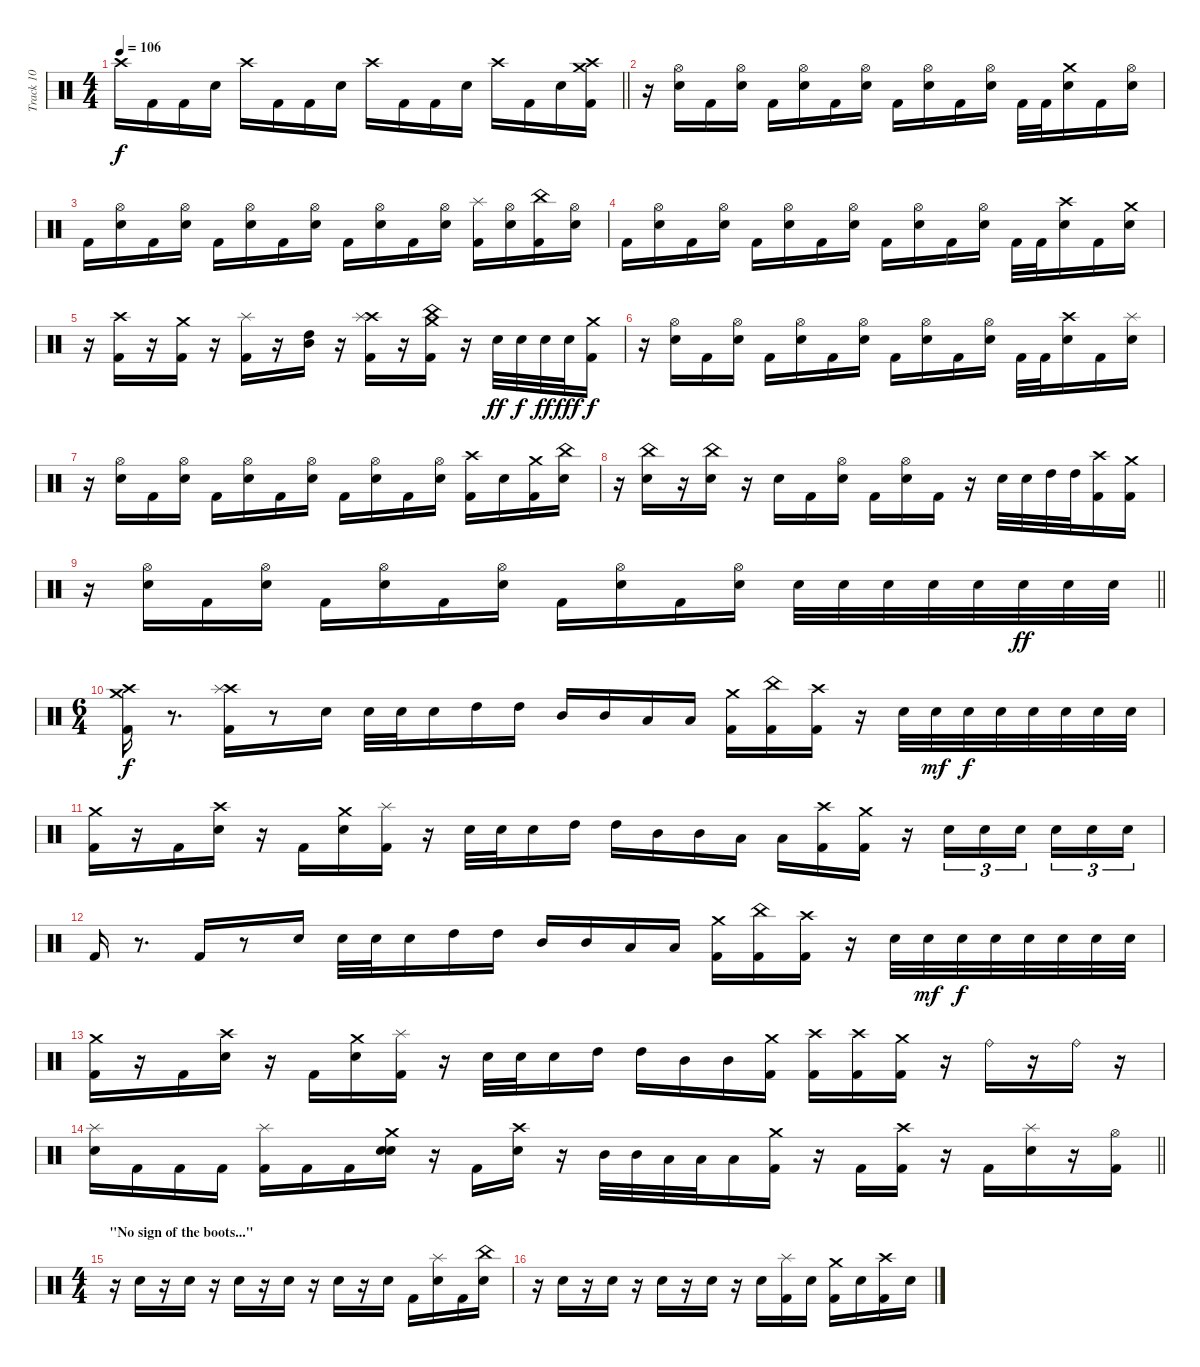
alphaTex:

\track ("Track 10" "Track 10") {instrument percussion}
\staff {score}
\articulation defaults
\ts (4 4)
\tempo 106
\clef neutral
\barLineRight lightlight
\ks c "Crash high (hit)".16{dy f} "Kick (hit) 2".16 "Kick (hit) 2".16 "Snare (hit) 2".16 "Crash high (hit)".16 "Kick (hit) 2".16 "Kick (hit) 2".16 "Snare (hit) 2".16 "Crash high (hit)".16 "Kick (hit) 2".16 "Kick (hit) 2".16 "Snare (hit) 2".16 "Crash high (hit)".16 "Kick (hit) 2".16 "Snare (hit) 2".16
("Kick (hit) 2" "Crash high (hit)" "Crash medium (hit)").16 |
r.16 ("Snare (hit) 2" "Hi-Hat (open)").16 "Kick (hit) 2".16 ("Snare (hit) 2" "Hi-Hat (open)").16 "Kick (hit) 2".16 ("Snare (hit) 2" "Hi-Hat (open)").16 "Kick (hit) 2".16 ("Snare (hit) 2" "Hi-Hat (open)").16 "Kick (hit) 2".16 ("Snare (hit) 2" "Hi-Hat (open)").16 "Kick (hit) 2".16 ("Snare (hit) 2" "Hi-Hat (open)").16 "Kick (hit) 2".32 "Kick (hit) 2".32 ("Snare (hit) 2" "Crash medium (hit)").16 "Kick (hit) 2".16 ("Snare (hit) 2" "Hi-Hat (open)").16 |
"Kick (hit) 2".16 ("Snare (hit) 2" "Hi-Hat (open)").16 "Kick (hit) 2".16 ("Snare (hit) 2" "Hi-Hat (open)").16 "Kick (hit) 2".16 ("Snare (hit) 2" "Hi-Hat (open)").16 "Kick (hit) 2".16 ("Snare (hit) 2" "Hi-Hat (open)").16 "Kick (hit) 2".16 ("Snare (hit) 2" "Hi-Hat (open)").16 "Kick (hit) 2".16 ("Snare (hit) 2" "Hi-Hat (open)").16 ("Kick (hit) 2" "Splash (hit)").16 ("Snare (hit) 2" "Hi-Hat (open)").16 ("Kick (hit) 2" "China (hit)").16 ("Snare (hit) 2" "Hi-Hat (open)").16 |
"Kick (hit) 2".16 ("Snare (hit) 2" "Hi-Hat (open)").16 "Kick (hit) 2".16 ("Snare (hit) 2" "Hi-Hat (open)").16 "Kick (hit) 2".16 ("Snare (hit) 2" "Hi-Hat (open)").16 "Kick (hit) 2".16 ("Snare (hit) 2" "Hi-Hat (open)").16 "Kick (hit) 2".16 ("Snare (hit) 2" "Hi-Hat (open)").16 "Kick (hit) 2".16 ("Snare (hit) 2" "Hi-Hat (open)").16 "Kick (hit) 2".32 "Kick (hit) 2".32 ("Snare (hit) 2" "Crash high (hit)").16 "Kick (hit) 2".16 ("Snare (hit) 2" "Crash medium (hit)").16 |
r.16 ("Kick (hit) 2" "Crash high (hit)").16 r.16 ("Kick (hit) 2" "Crash medium (hit)").16 r.16 ("Kick (hit) 2" "Splash (hit)").16 r.16 ("Mid Tom (hit)" "High Tom (hit)").16 r.16 ("Kick (hit) 2" "Crash high (hit)" "Splash (hit)").16 r.16 ("Kick (hit) 2" "China (hit)" "Crash medium (hit)").16 r.16 "Snare (hit) 2".32{dy ff} "Snare (hit) 2".32{dy f} "Snare (hit) 2".32{dy ff} "Snare (hit) 2".32{dy fff} ("Kick (hit) 2" "Crash medium (hit)").16{dy f} |
r.16 ("Snare (hit) 2" "Hi-Hat (open)").16 "Kick (hit) 2".16 ("Snare (hit) 2" "Hi-Hat (open)").16 "Kick (hit) 2".16 ("Snare (hit) 2" "Hi-Hat (open)").16 "Kick (hit) 2".16 ("Snare (hit) 2" "Hi-Hat (open)").16 "Kick (hit) 2".16 ("Snare (hit) 2" "Hi-Hat (open)").16 "Kick (hit) 2".16 ("Snare (hit) 2" "Hi-Hat (open)").16 "Kick (hit) 2".32 "Kick (hit) 2".32 ("Snare (hit) 2" "Crash high (hit)").16 "Kick (hit) 2".16 ("Snare (hit) 2" "Splash (hit)").16 |
r.16 ("Snare (hit) 2" "Hi-Hat (open)").16 "Kick (hit) 2".16 ("Snare (hit) 2" "Hi-Hat (open)").16 "Kick (hit) 2".16 ("Snare (hit) 2" "Hi-Hat (open)").16 "Kick (hit) 2".16 ("Snare (hit) 2" "Hi-Hat (open)").16 "Kick (hit) 2".16 ("Snare (hit) 2" "Hi-Hat (open)").16 "Kick (hit) 2".16 ("Snare (hit) 2" "Hi-Hat (open)").16 ("Kick (hit) 2" "Crash high (hit)").16 "Snare (hit) 2".16 ("Kick (hit) 2" "Crash medium (hit)").16 ("Snare (hit) 2" "China (hit)").16 |
r.16 ("Snare (hit) 2" "China (hit)").16 r.16 ("Snare (hit) 2" "China (hit)").16 r.16 "Snare (hit) 2".16 "Kick (hit) 2".16 ("Snare (hit) 2" "Hi-Hat (open)").16 "Kick (hit) 2".16 ("Snare (hit) 2" "Hi-Hat (open)").16 "Kick (hit) 2".16 r.16 "Snare (hit) 2".32 "Snare (hit) 2".32 "High Tom (hit)".32 "High Tom (hit)".32 ("Kick (hit) 2" "Crash high (hit)").16 ("Kick (hit) 2" "Crash medium (hit)").16 |
\barLineRight lightlight
r.16 ("Snare (hit) 2" "Hi-Hat (open)").16 "Kick (hit) 2".16 ("Snare (hit) 2" "Hi-Hat (open)").16 "Kick (hit) 2".16 ("Snare (hit) 2" "Hi-Hat (open)").16 "Kick (hit) 2".16 ("Snare (hit) 2" "Hi-Hat (open)").16 "Kick (hit) 2".16 ("Snare (hit) 2" "Hi-Hat (open)").16 "Kick (hit) 2".16 ("Snare (hit) 2" "Hi-Hat (open)").16 "Snare (hit) 2".32 "Snare (hit) 2".32 "Snare (hit) 2".32 "Snare (hit) 2".32 "Snare (hit) 2".32 "Snare (hit) 2".32{dy ff} "Snare (hit) 2".32 "Snare (hit) 2".32 |
\ts (6 4)
("Kick (hit) 2" "Crash high (hit)" "Crash medium (hit)").16{dy f} r.8{d} ("Kick (hit) 2" "Crash high (hit)" "Splash (hit)").16 r.8 "Snare (hit) 2".16 "Snare (hit) 2".32 "Snare (hit) 2".32 "Snare (hit) 2".16 "High Tom (hit)".16 "High Tom (hit)".16 "Mid Tom (hit)".16 "Mid Tom (hit)".16 "Low Floor Tom (hit)".16 "Low Floor Tom (hit)".16 ("Kick (hit) 2" "Crash medium (hit)").16 ("Kick (hit) 2" "China (hit)").16 ("Kick (hit) 2" "Crash high (hit)").16 r.16 "Snare (hit) 2".32 "Snare (hit) 2".32{dy mf} "Snare (hit) 2".32{dy f} "Snare (hit) 2".32 "Snare (hit) 2".32 "Snare (hit) 2".32 "Snare (hit) 2".32 "Snare (hit) 2".32 |
("Kick (hit) 2" "Crash medium (hit)").16 r.16 "Kick (hit) 2".16 ("Snare (hit) 2" "Crash high (hit)").16 r.16 "Kick (hit) 2".16 ("Snare (hit) 2" "Crash medium (hit)").16 ("Kick (hit) 2" "Splash (hit)").16 r.16 "Snare (hit) 2".32 "Snare (hit) 2".32 "Snare (hit) 2".16 "High Tom (hit)".16 "High Tom (hit)".16 "Mid Tom (hit)".16 "Mid Tom (hit)".16 "Low Floor Tom (hit)".16 "Low Floor Tom (hit)".16 ("Kick (hit) 2" "Crash high (hit)").16 ("Kick (hit) 2" "Crash medium (hit)").16 r.16 "Snare (hit) 2".16{tu (3 2)} "Snare (hit) 2".16{tu (3 2)} "Snare (hit) 2".16{tu (3 2) beam splitsecondary} "Snare (hit) 2".16{tu (3 2)} "Snare (hit) 2".16{tu (3 2)} "Snare (hit) 2".16{tu (3 2)} |
"Kick (hit) 2".16 r.8{d} "Kick (hit) 2".16 r.8 "Snare (hit) 2".16 "Snare (hit) 2".32 "Snare (hit) 2".32 "Snare (hit) 2".16 "High Tom (hit)".16 "High Tom (hit)".16 "Mid Tom (hit)".16 "Mid Tom (hit)".16 "Low Floor Tom (hit)".16 "Low Floor Tom (hit)".16 ("Kick (hit) 2" "Crash medium (hit)").16 ("Kick (hit) 2" "China (hit)").16 ("Kick (hit) 2" "Crash high (hit)").16 r.16 "Snare (hit) 2".32 "Snare (hit) 2".32{dy mf} "Snare (hit) 2".32{dy f} "Snare (hit) 2".32 "Snare (hit) 2".32 "Snare (hit) 2".32 "Snare (hit) 2".32 "Snare (hit) 2".32 |
("Kick (hit) 2" "Crash medium (hit)").16 r.16 "Kick (hit) 2".16 ("Snare (hit) 2" "Crash high (hit)").16 r.16 "Kick (hit) 2".16 ("Snare (hit) 2" "Crash medium (hit)").16 ("Kick (hit) 2" "Splash (hit)").16 r.16 "Snare (hit) 2".32 "Snare (hit) 2".32 "Snare (hit) 2".16 "High Tom (hit)".16 "High Tom (hit)".16 "Mid Tom (hit)".16 "Mid Tom (hit)".16 ("Kick (hit) 2" "Crash medium (hit)").16 ("Kick (hit) 2" "Crash high (hit)").16 ("Kick (hit) 2" "Crash high (hit)").16 ("Kick (hit) 2" "Crash medium (hit)").16 r.16 "Ride (bell)".16 r.16 "Ride (bell)".16 r.16 |
\barLineRight lightlight
("Snare (hit) 2" "Splash (hit)").16 "Kick (hit) 2".16 "Kick (hit) 2".16 "Kick (hit) 2".16 ("Kick (hit) 2" "Splash (hit)").16 "Kick (hit) 2".16 "Kick (hit) 2".16 ("Snare (hit) 2" "Snare (hit) 2" "Crash medium (hit)").16 r.16 "Kick (hit) 2".16 ("Snare (hit) 2" "Crash high (hit)").16 r.16 "Mid Tom (hit)".32 "Mid Tom (hit)".32 "Low Floor Tom (hit)".32 "Low Floor Tom (hit)".32 "Low Floor Tom (hit)".16 ("Kick (hit) 2" "Crash medium (hit)").16 r.16 "Kick (hit) 2".16 ("Kick (hit) 2" "Crash high (hit)").16 r.16 "Kick (hit) 2".16 ("Snare (hit) 2" "Splash (hit)").16 r.16 ("Kick (hit) 2" "Hi-Hat (open)").16 |
\ts (4 4)
\section ("" "\"No sign of the boots...\"")
r.16 "Snare (hit) 2".16 r.16 "Snare (hit) 2".16 r.16 "Snare (hit) 2".16 r.16 "Snare (hit) 2".16 r.16 "Snare (hit) 2".16 r.16 "Snare (hit) 2".16 "Kick (hit) 2".16 ("Snare (hit) 2" "Splash (hit)").16 "Kick (hit) 2".16 ("Snare (hit) 2" "China (hit)").16 |
r.16 "Snare (hit) 2".16 r.16 "Snare (hit) 2".16 r.16 "Snare (hit) 2".16 r.16 "Snare (hit) 2".16 r.16 "Snare (hit) 2".16 ("Kick (hit) 2" "Splash (hit)").16 "Snare (hit) 2".16 ("Kick (hit) 2" "Crash medium (hit)").16 "Snare (hit) 2".16 ("Kick (hit) 2" "Crash high (hit)").16 "Snare (hit) 2".16
